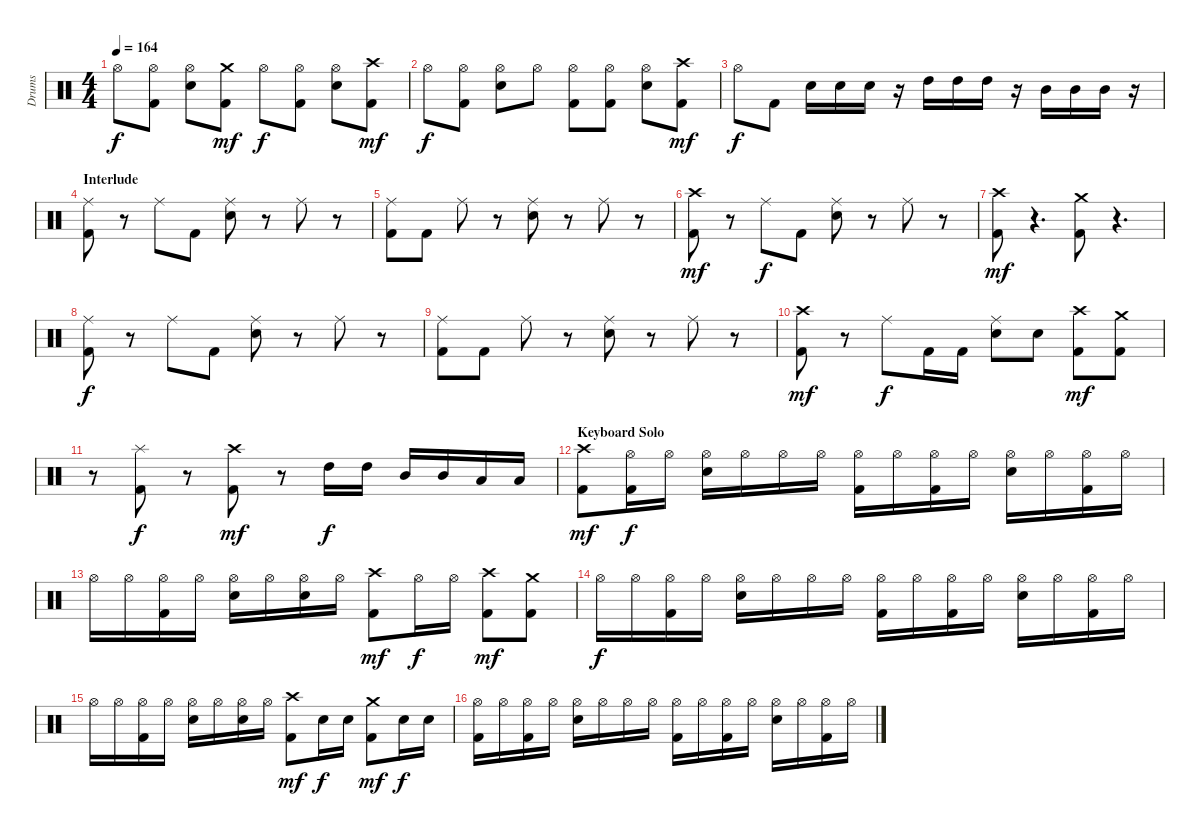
\track ("Drums" "Drums") {instrument percussion}
\staff {score}
\articulation defaults
\ts (4 4)
\tempo 164
\clef neutral
\ks c "Hi-Hat (open)".8{dy f}
("Hi-Hat (open)" "Kick (hit) 2").8 ("Hi-Hat (open)" "Snare (hit) 2").8 ("Crash medium (hit)" "Kick (hit) 2").8{dy mf} "Hi-Hat (open)".8{dy f} ("Hi-Hat (open)" "Kick (hit) 2").8 ("Hi-Hat (open)" "Snare (hit) 2").8 ("Crash high (hit)" "Kick (hit) 2").8{dy mf} |
"Hi-Hat (open)".8{dy f} ("Hi-Hat (open)" "Kick (hit) 2").8 ("Hi-Hat (open)" "Snare (hit) 2").8 "Hi-Hat (open)".8 ("Hi-Hat (open)" "Kick (hit) 2").8 ("Hi-Hat (open)" "Kick (hit) 2").8 ("Hi-Hat (open)" "Snare (hit) 2").8 ("Crash high (hit)" "Kick (hit) 2").8{dy mf} |
"Hi-Hat (open)".8{dy f} "Kick (hit) 2".8 "Snare (hit) 2".16 "Snare (hit) 2".16 "Snare (hit) 2".16 r.16 "High Tom (hit)".16 "High Tom (hit)".16 "High Tom (hit)".16 r.16 "Mid Tom (hit)".16 "Mid Tom (hit)".16 "Mid Tom (hit)".16 r.16 |
\section ("" "Interlude")
("Ride (middle)" "Kick (hit) 2").8 r.8 "Ride (middle)".8 "Kick (hit) 2".8 ("Ride (middle)" "Snare (hit) 2").8 r.8 "Ride (middle)".8 r.8 |
("Ride (middle)" "Kick (hit) 2").8 "Kick (hit) 2".8 "Ride (middle)".8 r.8 ("Ride (middle)" "Snare (hit) 2").8 r.8 "Ride (middle)".8 r.8 |
("Crash high (hit)" "Kick (hit) 2").8{dy mf} r.8 "Ride (middle)".8{dy f} "Kick (hit) 2".8 ("Ride (middle)" "Snare (hit) 2").8 r.8 "Ride (middle)".8 r.8 |
("Crash high (hit)" "Kick (hit) 2").8{dy mf} r.4{d} ("Crash medium (hit)" "Kick (hit) 2").8 r.4{d} |
("Ride (middle)" "Kick (hit) 2").8{dy f} r.8 "Ride (middle)".8 "Kick (hit) 2".8 ("Ride (middle)" "Snare (hit) 2").8 r.8 "Ride (middle)".8 r.8 |
("Ride (middle)" "Kick (hit) 2").8 "Kick (hit) 2".8 "Ride (middle)".8 r.8 ("Ride (middle)" "Snare (hit) 2").8 r.8 "Ride (middle)".8 r.8 |
("Crash high (hit)" "Kick (hit) 2").8{dy mf} r.8 "Ride (middle)".8{dy f} "Kick (hit) 2".16 "Kick (hit) 2".16 ("Ride (middle)" "Snare (hit) 2").8 "Snare (hit) 2".8 ("Crash high (hit)" "Kick (hit) 2").8{dy mf} ("Crash medium (hit)" "Kick (hit) 2").8 |
\section ("" "")
r.8 ("Splash (hit)" "Kick (hit) 2").8{dy f} r.8 ("Crash high (hit)" "Kick (hit) 2").8{dy mf} r.8 "High Tom (hit)".16{dy f} "High Tom (hit)".16 "Mid Tom (hit)".16 "Mid Tom (hit)".16 "Low Tom (hit)".16 "Low Tom (hit)".16 |
\section ("" "Keyboard Solo")
("Crash high (hit)" "Kick (hit) 2").8{dy mf} ("Hi-Hat (open)" "Kick (hit) 2").16{dy f} "Hi-Hat (open)".16 ("Hi-Hat (open)" "Snare (hit) 2").16 "Hi-Hat (open)".16 "Hi-Hat (open)".16 "Hi-Hat (open)".16 ("Hi-Hat (open)" "Kick (hit) 2").16 "Hi-Hat (open)".16 ("Hi-Hat (open)" "Kick (hit) 2").16 "Hi-Hat (open)".16 ("Hi-Hat (open)" "Snare (hit) 2").16 "Hi-Hat (open)".16 ("Hi-Hat (open)" "Kick (hit) 2").16 "Hi-Hat (open)".16 |
"Hi-Hat (open)".16 "Hi-Hat (open)".16 ("Hi-Hat (open)" "Kick (hit) 2").16 "Hi-Hat (open)".16 ("Hi-Hat (open)" "Snare (hit) 2").16 "Hi-Hat (open)".16 ("Hi-Hat (open)" "Snare (hit) 2").16 "Hi-Hat (open)".16 ("Crash high (hit)" "Kick (hit) 2").8{dy mf} "Hi-Hat (open)".16{dy f} "Hi-Hat (open)".16 ("Crash high (hit)" "Kick (hit) 2").8{dy mf} ("Crash medium (hit)" "Kick (hit) 2").8 |
"Hi-Hat (open)".16{dy f} "Hi-Hat (open)".16 ("Hi-Hat (open)" "Kick (hit) 2").16 "Hi-Hat (open)".16 ("Hi-Hat (open)" "Snare (hit) 2").16 "Hi-Hat (open)".16 "Hi-Hat (open)".16 "Hi-Hat (open)".16 ("Hi-Hat (open)" "Kick (hit) 2").16 "Hi-Hat (open)".16 ("Hi-Hat (open)" "Kick (hit) 2").16 "Hi-Hat (open)".16 ("Hi-Hat (open)" "Snare (hit) 2").16 "Hi-Hat (open)".16 ("Hi-Hat (open)" "Kick (hit) 2").16 "Hi-Hat (open)".16 |
"Hi-Hat (open)".16 "Hi-Hat (open)".16 ("Hi-Hat (open)" "Kick (hit) 2").16 "Hi-Hat (open)".16 ("Hi-Hat (open)" "Snare (hit) 2").16 "Hi-Hat (open)".16 ("Hi-Hat (open)" "Snare (hit) 2").16 "Hi-Hat (open)".16 ("Crash high (hit)" "Kick (hit) 2").8{dy mf} "Snare (hit) 2".16{dy f} "Snare (hit) 2".16 ("Crash medium (hit)" "Kick (hit) 2").8{dy mf} "Snare (hit) 2".16{dy f} "Snare (hit) 2".16 |
("Hi-Hat (open)" "Kick (hit) 2").16 "Hi-Hat (open)".16 ("Hi-Hat (open)" "Kick (hit) 2").16 "Hi-Hat (open)".16 ("Hi-Hat (open)" "Snare (hit) 2").16 "Hi-Hat (open)".16 "Hi-Hat (open)".16 "Hi-Hat (open)".16 ("Hi-Hat (open)" "Kick (hit) 2").16 "Hi-Hat (open)".16 ("Hi-Hat (open)" "Kick (hit) 2").16 "Hi-Hat (open)".16 ("Hi-Hat (open)" "Snare (hit) 2").16 "Hi-Hat (open)".16 ("Hi-Hat (open)" "Kick (hit) 2").16 "Hi-Hat (open)".16
